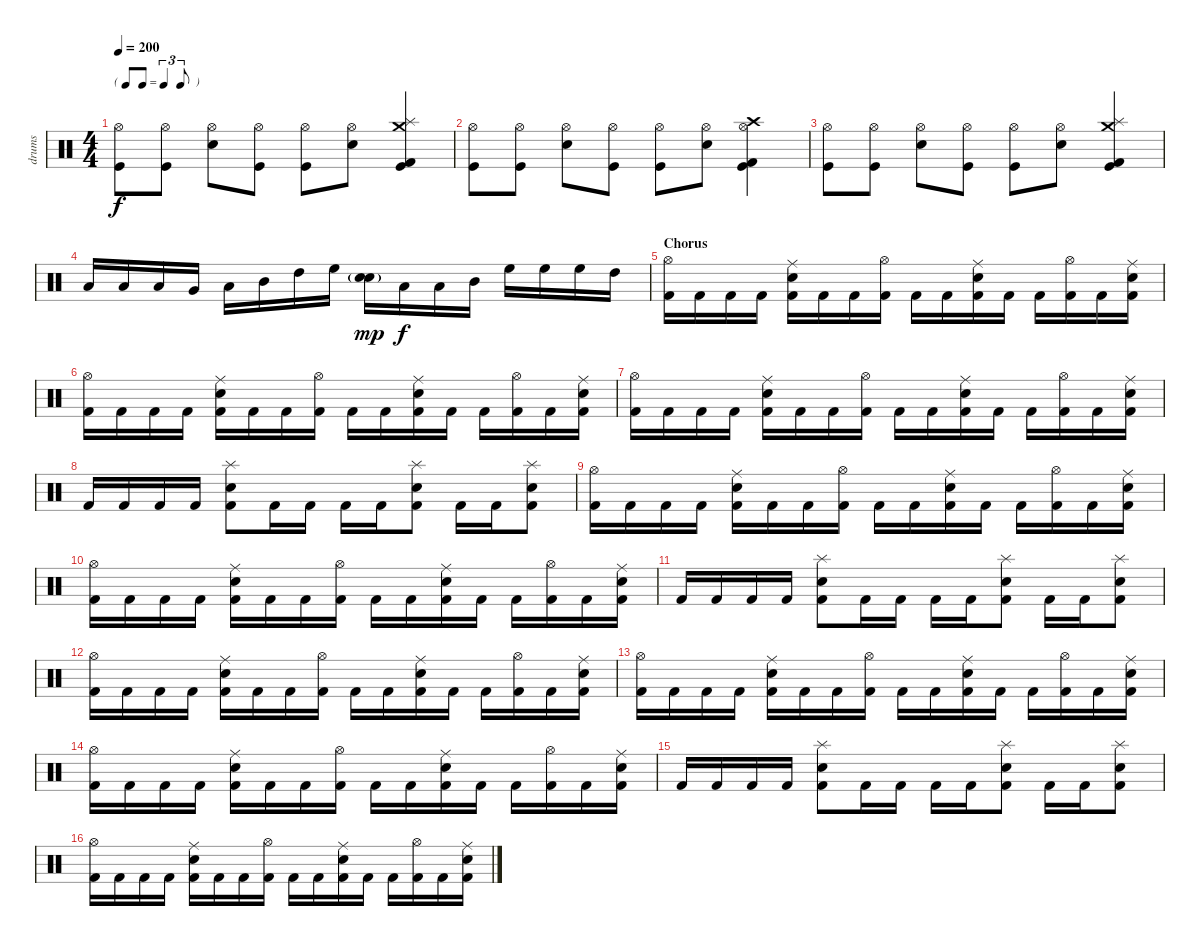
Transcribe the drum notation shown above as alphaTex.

\track ("drums" "drums") {instrument percussion}
\staff {score}
\articulation defaults
\ts (4 4)
\tf triplet8th
\tempo 200
\clef neutral
\ks c
("Hi-Hat (open)" "Kick (hit)").8{dy f} ("Hi-Hat (open)" "Kick (hit)").8 ("Hi-Hat (open)" "Snare (hit) 2").8 ("Hi-Hat (open)" "Kick (hit)").8 ("Hi-Hat (open)" "Kick (hit)").8 ("Hi-Hat (open)" "Snare (hit) 2").8 ("Crash medium (hit)" "Splash (hit)" "Kick (hit)" "Kick (hit) 2").4 |
("Hi-Hat (open)" "Kick (hit)").8 ("Hi-Hat (open)" "Kick (hit)").8 ("Hi-Hat (open)" "Snare (hit) 2").8 ("Hi-Hat (open)" "Kick (hit)").8 ("Hi-Hat (open)" "Kick (hit)").8 ("Hi-Hat (open)" "Snare (hit) 2").8 ("Crash high (hit)" "Hi-Hat (open)" "Kick (hit)" "Kick (hit) 2").4 |
("Hi-Hat (open)" "Kick (hit)").8 ("Hi-Hat (open)" "Kick (hit)").8 ("Hi-Hat (open)" "Snare (hit) 2").8 ("Hi-Hat (open)" "Kick (hit)").8 ("Hi-Hat (open)" "Kick (hit)").8 ("Hi-Hat (open)" "Snare (hit) 2").8 ("Crash medium (hit)" "Splash (hit)" "Kick (hit)" "Kick (hit) 2").4 |
"Low Floor Tom (hit)".16 "Low Floor Tom (hit)".16 "Low Floor Tom (hit)".16 "Very Low Tom (hit)".16 "Low Tom (hit)".16 "Mid Tom (hit)".16 "High Tom (hit)".16 "High Floor Tom (hit)".16 ("Electric Snare (hit)"{g} "Snare (hit) 2").16{dy mp} "Low Floor Tom (hit)".16{dy f} "Low Tom (hit)".16 "Mid Tom (hit)".16 "High Floor Tom (hit)".16 "High Floor Tom (hit)".16 "High Floor Tom (hit)".16 "High Tom (hit)".16 |
\section ("" "Chorus")
("Kick (hit) 2" "Hi-Hat (open)").16 "Kick (hit) 2".16 "Kick (hit) 2".16 "Kick (hit) 2".16 ("Kick (hit) 2" "Electric Snare (hit)" "Ride (middle)").16 "Kick (hit) 2".16 "Kick (hit) 2".16 ("Kick (hit) 2" "Hi-Hat (open)").16 "Kick (hit) 2".16 "Kick (hit) 2".16 ("Kick (hit) 2" "Electric Snare (hit)" "Ride (middle)").16 "Kick (hit) 2".16 "Kick (hit) 2".16 ("Kick (hit) 2" "Hi-Hat (open)").16 "Kick (hit) 2".16 ("Kick (hit) 2" "Electric Snare (hit)" "Ride (middle)").16 |
("Kick (hit) 2" "Hi-Hat (open)").16 "Kick (hit) 2".16 "Kick (hit) 2".16 "Kick (hit) 2".16 ("Kick (hit) 2" "Electric Snare (hit)" "Ride (middle)").16 "Kick (hit) 2".16 "Kick (hit) 2".16 ("Kick (hit) 2" "Hi-Hat (open)").16 "Kick (hit) 2".16 "Kick (hit) 2".16 ("Kick (hit) 2" "Electric Snare (hit)" "Ride (middle)").16 "Kick (hit) 2".16 "Kick (hit) 2".16 ("Kick (hit) 2" "Hi-Hat (open)").16 "Kick (hit) 2".16 ("Kick (hit) 2" "Electric Snare (hit)" "Ride (middle)").16 |
("Kick (hit) 2" "Hi-Hat (open)").16 "Kick (hit) 2".16 "Kick (hit) 2".16 "Kick (hit) 2".16 ("Kick (hit) 2" "Electric Snare (hit)" "Ride (middle)").16 "Kick (hit) 2".16 "Kick (hit) 2".16 ("Kick (hit) 2" "Hi-Hat (open)").16 "Kick (hit) 2".16 "Kick (hit) 2".16 ("Kick (hit) 2" "Electric Snare (hit)" "Ride (middle)").16 "Kick (hit) 2".16 "Kick (hit) 2".16 ("Kick (hit) 2" "Hi-Hat (open)").16 "Kick (hit) 2".16 ("Kick (hit) 2" "Electric Snare (hit)" "Ride (middle)").16 |
"Kick (hit) 2".16 "Kick (hit) 2".16 "Kick (hit) 2".16 "Kick (hit) 2".16 ("Kick (hit) 2" "Electric Snare (hit)" "Splash (hit)").8 "Kick (hit) 2".16 "Kick (hit) 2".16 "Kick (hit) 2".16 "Kick (hit) 2".16 ("Kick (hit) 2" "Electric Snare (hit)" "Splash (hit)").8 "Kick (hit) 2".16 "Kick (hit) 2".16 ("Kick (hit) 2" "Electric Snare (hit)" "Splash (hit)").8 |
("Kick (hit) 2" "Hi-Hat (open)").16 "Kick (hit) 2".16 "Kick (hit) 2".16 "Kick (hit) 2".16 ("Kick (hit) 2" "Electric Snare (hit)" "Ride (middle)").16 "Kick (hit) 2".16 "Kick (hit) 2".16 ("Kick (hit) 2" "Hi-Hat (open)").16 "Kick (hit) 2".16 "Kick (hit) 2".16 ("Kick (hit) 2" "Electric Snare (hit)" "Ride (middle)").16 "Kick (hit) 2".16 "Kick (hit) 2".16 ("Kick (hit) 2" "Hi-Hat (open)").16 "Kick (hit) 2".16 ("Kick (hit) 2" "Electric Snare (hit)" "Ride (middle)").16 |
("Kick (hit) 2" "Hi-Hat (open)").16 "Kick (hit) 2".16 "Kick (hit) 2".16 "Kick (hit) 2".16 ("Kick (hit) 2" "Electric Snare (hit)" "Ride (middle)").16 "Kick (hit) 2".16 "Kick (hit) 2".16 ("Kick (hit) 2" "Hi-Hat (open)").16 "Kick (hit) 2".16 "Kick (hit) 2".16 ("Kick (hit) 2" "Electric Snare (hit)" "Ride (middle)").16 "Kick (hit) 2".16 "Kick (hit) 2".16 ("Kick (hit) 2" "Hi-Hat (open)").16 "Kick (hit) 2".16 ("Kick (hit) 2" "Electric Snare (hit)" "Ride (middle)").16 |
"Kick (hit) 2".16 "Kick (hit) 2".16 "Kick (hit) 2".16 "Kick (hit) 2".16 ("Kick (hit) 2" "Electric Snare (hit)" "Splash (hit)").8 "Kick (hit) 2".16 "Kick (hit) 2".16 "Kick (hit) 2".16 "Kick (hit) 2".16 ("Kick (hit) 2" "Electric Snare (hit)" "Splash (hit)").8 "Kick (hit) 2".16 "Kick (hit) 2".16 ("Kick (hit) 2" "Electric Snare (hit)" "Splash (hit)").8 |
("Kick (hit) 2" "Hi-Hat (open)").16 "Kick (hit) 2".16 "Kick (hit) 2".16 "Kick (hit) 2".16 ("Kick (hit) 2" "Electric Snare (hit)" "Ride (middle)").16 "Kick (hit) 2".16 "Kick (hit) 2".16 ("Kick (hit) 2" "Hi-Hat (open)").16 "Kick (hit) 2".16 "Kick (hit) 2".16 ("Kick (hit) 2" "Electric Snare (hit)" "Ride (middle)").16 "Kick (hit) 2".16 "Kick (hit) 2".16 ("Kick (hit) 2" "Hi-Hat (open)").16 "Kick (hit) 2".16 ("Kick (hit) 2" "Electric Snare (hit)" "Ride (middle)").16 |
("Kick (hit) 2" "Hi-Hat (open)").16 "Kick (hit) 2".16 "Kick (hit) 2".16 "Kick (hit) 2".16 ("Kick (hit) 2" "Electric Snare (hit)" "Ride (middle)").16 "Kick (hit) 2".16 "Kick (hit) 2".16 ("Kick (hit) 2" "Hi-Hat (open)").16 "Kick (hit) 2".16 "Kick (hit) 2".16 ("Kick (hit) 2" "Electric Snare (hit)" "Ride (middle)").16 "Kick (hit) 2".16 "Kick (hit) 2".16 ("Kick (hit) 2" "Hi-Hat (open)").16 "Kick (hit) 2".16 ("Kick (hit) 2" "Electric Snare (hit)" "Ride (middle)").16 |
("Kick (hit) 2" "Hi-Hat (open)").16 "Kick (hit) 2".16 "Kick (hit) 2".16 "Kick (hit) 2".16 ("Kick (hit) 2" "Electric Snare (hit)" "Ride (middle)").16 "Kick (hit) 2".16 "Kick (hit) 2".16 ("Kick (hit) 2" "Hi-Hat (open)").16 "Kick (hit) 2".16 "Kick (hit) 2".16 ("Kick (hit) 2" "Electric Snare (hit)" "Ride (middle)").16 "Kick (hit) 2".16 "Kick (hit) 2".16 ("Kick (hit) 2" "Hi-Hat (open)").16 "Kick (hit) 2".16 ("Kick (hit) 2" "Electric Snare (hit)" "Ride (middle)").16 |
"Kick (hit) 2".16 "Kick (hit) 2".16 "Kick (hit) 2".16 "Kick (hit) 2".16 ("Kick (hit) 2" "Electric Snare (hit)" "Splash (hit)").8 "Kick (hit) 2".16 "Kick (hit) 2".16 "Kick (hit) 2".16 "Kick (hit) 2".16 ("Kick (hit) 2" "Electric Snare (hit)" "Splash (hit)").8 "Kick (hit) 2".16 "Kick (hit) 2".16 ("Kick (hit) 2" "Electric Snare (hit)" "Splash (hit)").8 |
("Kick (hit) 2" "Hi-Hat (open)").16 "Kick (hit) 2".16 "Kick (hit) 2".16 "Kick (hit) 2".16 ("Kick (hit) 2" "Electric Snare (hit)" "Ride (middle)").16 "Kick (hit) 2".16 "Kick (hit) 2".16 ("Kick (hit) 2" "Hi-Hat (open)").16 "Kick (hit) 2".16 "Kick (hit) 2".16 ("Kick (hit) 2" "Electric Snare (hit)" "Ride (middle)").16 "Kick (hit) 2".16 "Kick (hit) 2".16 ("Kick (hit) 2" "Hi-Hat (open)").16 "Kick (hit) 2".16 ("Kick (hit) 2" "Electric Snare (hit)" "Ride (middle)").16
